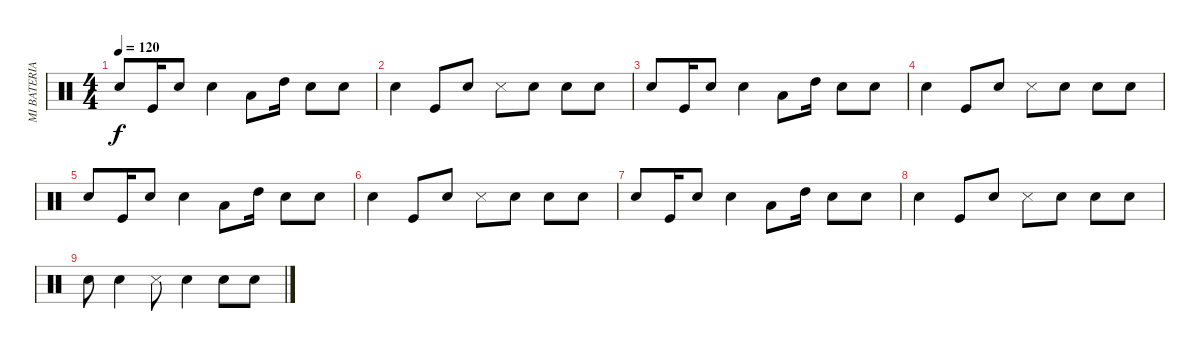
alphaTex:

\track ("MI BATERIA" "MI BATERIA") {instrument percussion}
\staff {score}
\articulation defaults
\ts (4 4)
\tempo 120
\clef neutral
\ks c "Snare (hit) 2".8{dy f} "Kick (hit)".16 "Electric Snare (hit)".8 "Snare (hit) 2".4 "Low Floor Tom (hit)".8 "High Tom (hit)".16 "Snare (hit) 2".8 "Electric Snare (hit)".8
|
"Snare (hit) 2".4 "Kick (hit)".8 "Electric Snare (hit)".8 "Snare (side stick) 3".8 "Electric Snare (hit)".8 "Snare (hit) 2".8 "Electric Snare (hit)".8 |
"Snare (hit) 2".8 "Kick (hit)".16 "Electric Snare (hit)".8 "Snare (hit) 2".4 "Low Floor Tom (hit)".8 "High Tom (hit)".16 "Snare (hit) 2".8 "Electric Snare (hit)".8 |
"Snare (hit) 2".4 "Kick (hit)".8 "Electric Snare (hit)".8 "Snare (side stick) 3".8 "Electric Snare (hit)".8 "Snare (hit) 2".8 "Electric Snare (hit)".8 |
"Snare (hit) 2".8 "Kick (hit)".16 "Electric Snare (hit)".8 "Snare (hit) 2".4 "Low Floor Tom (hit)".8 "High Tom (hit)".16 "Snare (hit) 2".8 "Electric Snare (hit)".8 |
"Snare (hit) 2".4 "Kick (hit)".8 "Electric Snare (hit)".8 "Snare (side stick) 3".8 "Electric Snare (hit)".8 "Snare (hit) 2".8 "Electric Snare (hit)".8 |
"Snare (hit) 2".8 "Kick (hit)".16 "Electric Snare (hit)".8 "Snare (hit) 2".4 "Low Floor Tom (hit)".8 "High Tom (hit)".16 "Snare (hit) 2".8 "Electric Snare (hit)".8 |
"Snare (hit) 2".4 "Kick (hit)".8 "Electric Snare (hit)".8 "Snare (side stick) 3".8 "Electric Snare (hit)".8 "Snare (hit) 2".8 "Electric Snare (hit)".8 |
"Snare (hit) 2".8 "Electric Snare (hit)".4 "Snare (side stick) 3".8 "Electric Snare (hit)".4 "Snare (hit) 2".8 "Electric Snare (hit)".8
